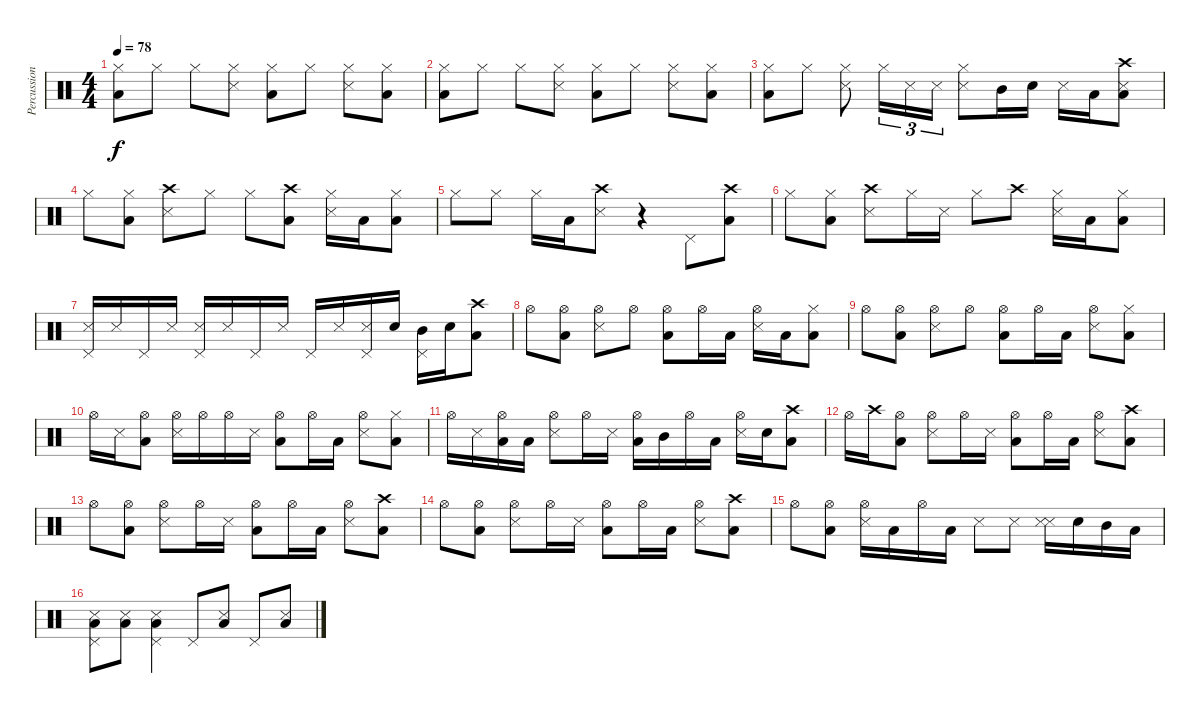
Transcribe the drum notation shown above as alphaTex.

\track ("Percussions" "Percussion") {instrument percussion}
\staff {score}
\articulation defaults
\ts (4 4)
\tempo 78
\clef neutral
\ks c
("Hi-Hat (closed)" "Low Floor Tom (hit)").8{dy f} "Hi-Hat (closed)".8 "Hi-Hat (closed)".8 ("Hi-Hat (closed)" "Snare (side stick) 3").8 ("Hi-Hat (closed)" "Low Floor Tom (hit)").8 "Hi-Hat (closed)".8 ("Hi-Hat (closed)" "Snare (side stick) 3").8 ("Hi-Hat (closed)" "Low Floor Tom (hit)").8 |
("Hi-Hat (closed)" "Low Floor Tom (hit)").8 "Hi-Hat (closed)".8 "Hi-Hat (closed)".8 ("Hi-Hat (closed)" "Snare (side stick) 3").8 ("Hi-Hat (closed)" "Low Floor Tom (hit)").8 "Hi-Hat (closed)".8 ("Hi-Hat (closed)" "Snare (side stick) 3").8 ("Hi-Hat (closed)" "Low Floor Tom (hit)").8 |
("Hi-Hat (closed)" "Low Floor Tom (hit)").8 "Hi-Hat (closed)".8 ("Hi-Hat (closed)" "Snare (side stick) 3").8 "Hi-Hat (closed)".16{tu (3 2)} "Snare (side stick) 3".16{tu (3 2)} "Snare (side stick) 3".16{tu (3 2)} ("Hi-Hat (closed)" "Snare (side stick) 3").8 "Mid Tom (hit)".16 "Snare (hit) 2".16 "Snare (side stick) 3".16 "Low Floor Tom (hit)".16 ("Crash high (hit)" "Snare (side stick) 3" "Low Floor Tom (hit)").8 |
"Hi-Hat (closed)".8 ("Hi-Hat (closed)" "Low Floor Tom (hit)").8 ("Crash high (hit)" "Snare (side stick) 3").8 "Hi-Hat (closed)".8 "Hi-Hat (closed)".8 ("Crash high (hit)" "Low Floor Tom (hit)").8 ("Hi-Hat (closed)" "Snare (side stick) 3").16 "Low Floor Tom (hit)".16 ("Hi-Hat (closed)" "Low Floor Tom (hit)").8 |
"Hi-Hat (closed)".8 "Hi-Hat (closed)".8 "Hi-Hat (closed)".16 "Low Floor Tom (hit)".16 ("Crash high (hit)" "Snare (side stick) 3").8 r.4 "Pedal Hi-Hat (hit)".8 ("Crash high (hit)" "Low Floor Tom (hit)").8 |
"Hi-Hat (closed)".8 ("Hi-Hat (closed)" "Low Floor Tom (hit)").8 ("Crash high (hit)" "Snare (side stick) 3").8 "Hi-Hat (closed)".16 "Snare (side stick) 3".16 "Hi-Hat (closed)".8 "Crash high (hit)".8 ("Hi-Hat (closed)" "Snare (side stick) 3").16 "Low Floor Tom (hit)".16 ("Hi-Hat (closed)" "Low Floor Tom (hit)").8 |
("Snare (side stick) 3" "Pedal Hi-Hat (hit)").16 "Snare (side stick) 3".16 "Pedal Hi-Hat (hit)".16 "Snare (side stick) 3".16 ("Snare (side stick) 3" "Pedal Hi-Hat (hit)").16 "Snare (side stick) 3".16 "Pedal Hi-Hat (hit)".16 "Snare (side stick) 3".16 "Pedal Hi-Hat (hit)".16 "Snare (side stick) 3".16 ("Snare (side stick) 3" "Pedal Hi-Hat (hit)").16 "Snare (hit) 2".16 ("Mid Tom (hit)" "Pedal Hi-Hat (hit)").16 "Snare (hit) 2".16 ("Crash high (hit)" "Low Floor Tom (hit)").8 |
"Hi-Hat (open)".8 ("Hi-Hat (open)" "Low Floor Tom (hit)").8 ("Hi-Hat (open)" "Snare (side stick) 3").8 "Hi-Hat (open)".8 ("Hi-Hat (open)" "Low Floor Tom (hit)").8 "Hi-Hat (open)".16 "Low Floor Tom (hit)".16 ("Hi-Hat (open)" "Snare (side stick) 3").16 "Low Floor Tom (hit)".16 ("Hi-Hat (closed)" "Low Floor Tom (hit)").8 |
"Hi-Hat (open)".8 ("Hi-Hat (open)" "Low Floor Tom (hit)").8 ("Hi-Hat (open)" "Snare (side stick) 3").8 "Hi-Hat (open)".8 ("Hi-Hat (open)" "Low Floor Tom (hit)").8 "Hi-Hat (open)".16 "Low Floor Tom (hit)".16 ("Hi-Hat (open)" "Snare (side stick) 3").8 ("Hi-Hat (closed)" "Low Floor Tom (hit)").8 |
"Hi-Hat (open)".16 "Snare (side stick) 3".16 ("Hi-Hat (open)" "Low Floor Tom (hit)").8 ("Hi-Hat (open)" "Snare (side stick) 3").16 "Hi-Hat (open)".16 "Hi-Hat (open)".16 "Snare (side stick) 3".16 ("Hi-Hat (open)" "Low Floor Tom (hit)").8 "Hi-Hat (open)".16 "Low Floor Tom (hit)".16 ("Hi-Hat (open)" "Snare (side stick) 3").8 ("Hi-Hat (closed)" "Low Floor Tom (hit)").8 |
"Hi-Hat (open)".16 "Snare (side stick) 3".16 ("Hi-Hat (open)" "Low Floor Tom (hit)").16 "Low Floor Tom (hit)".16 ("Hi-Hat (open)" "Snare (side stick) 3").8 "Hi-Hat (open)".16 "Snare (side stick) 3".16 ("Hi-Hat (open)" "Low Floor Tom (hit)").16 "Mid Tom (hit)".16 "Hi-Hat (open)".16 "Low Floor Tom (hit)".16 ("Hi-Hat (open)" "Snare (side stick) 3").16 "Snare (hit) 2".16 ("Crash high (hit)" "Low Floor Tom (hit)").8 |
"Hi-Hat (open)".16 "Crash high (hit)".16 ("Hi-Hat (open)" "Low Floor Tom (hit)").8 ("Hi-Hat (open)" "Snare (side stick) 3").8 "Hi-Hat (open)".16 "Snare (side stick) 3".16 ("Hi-Hat (open)" "Low Floor Tom (hit)").8 "Hi-Hat (open)".16 "Low Floor Tom (hit)".16 ("Hi-Hat (open)" "Snare (side stick) 3").8 ("Crash high (hit)" "Low Floor Tom (hit)").8 |
"Hi-Hat (open)".8 ("Hi-Hat (open)" "Low Floor Tom (hit)").8 ("Hi-Hat (open)" "Snare (side stick) 3").8 "Hi-Hat (open)".16 "Snare (side stick) 3".16 ("Hi-Hat (open)" "Low Floor Tom (hit)").8 "Hi-Hat (open)".16 "Low Floor Tom (hit)".16 ("Hi-Hat (open)" "Snare (side stick) 3").8 ("Crash high (hit)" "Low Floor Tom (hit)").8 |
"Hi-Hat (open)".8 ("Hi-Hat (open)" "Low Floor Tom (hit)").8 ("Hi-Hat (open)" "Snare (side stick) 3").8 "Hi-Hat (open)".16 "Snare (side stick) 3".16 ("Hi-Hat (open)" "Low Floor Tom (hit)").8 "Hi-Hat (open)".16 "Low Floor Tom (hit)".16 ("Hi-Hat (open)" "Snare (side stick) 3").8 ("Crash high (hit)" "Low Floor Tom (hit)").8 |
"Hi-Hat (open)".8 ("Hi-Hat (open)" "Low Floor Tom (hit)").8 ("Hi-Hat (open)" "Snare (side stick) 3").16 "Low Floor Tom (hit)".16 "Hi-Hat (open)".16 "Low Floor Tom (hit)".16 "Snare (side stick) 3".8 "Snare (side stick) 3".8 ("Snare (side stick) 3" "Snare (side stick) 3").16 "Snare (hit) 2".16 "Mid Tom (hit)".16 "Low Floor Tom (hit)".16 |
("Snare (side stick) 3" "Low Tom (hit)" "Pedal Hi-Hat (hit)").8 ("Snare (side stick) 3" "Low Tom (hit)").8 ("Snare (side stick) 3" "Low Tom (hit)" "Pedal Hi-Hat (hit)").4 "Pedal Hi-Hat (hit)".8 ("Snare (side stick) 3" "Low Tom (hit)").8 "Pedal Hi-Hat (hit)".8 ("Snare (side stick) 3" "Low Tom (hit)").8
